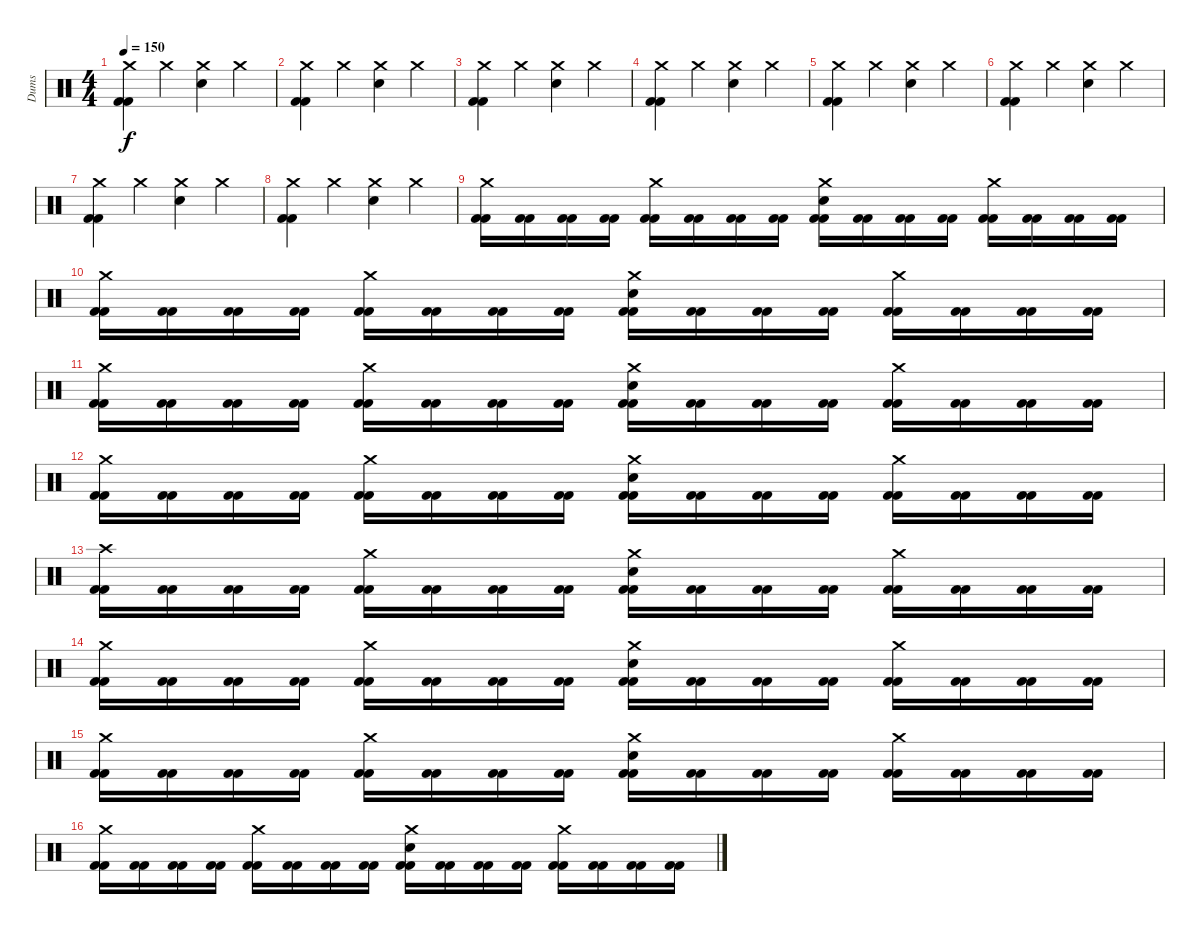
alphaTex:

\track ("Dums" "Dums") {instrument percussion}
\staff {score}
\articulation defaults
\ts (4 4)
\tempo 150
\clef neutral
\ks c
("Crash medium (hit)" "Kick (hit) 2" "Kick (hit) 2").4{dy f} "Crash medium (hit)".4 ("Crash medium (hit)" "Electric Snare (hit)").4 "Crash medium (hit)".4 |
("Crash medium (hit)" "Kick (hit) 2" "Kick (hit) 2").4 "Crash medium (hit)".4 ("Crash medium (hit)" "Electric Snare (hit)").4 "Crash medium (hit)".4 |
("Crash medium (hit)" "Kick (hit) 2" "Kick (hit) 2").4 "Crash medium (hit)".4 ("Crash medium (hit)" "Electric Snare (hit)").4 "Crash medium (hit)".4 |
("Crash medium (hit)" "Kick (hit) 2" "Kick (hit) 2").4 "Crash medium (hit)".4 ("Crash medium (hit)" "Electric Snare (hit)").4 "Crash medium (hit)".4 |
("Crash medium (hit)" "Kick (hit) 2" "Kick (hit) 2").4 "Crash medium (hit)".4 ("Crash medium (hit)" "Electric Snare (hit)").4 "Crash medium (hit)".4 |
("Crash medium (hit)" "Kick (hit) 2" "Kick (hit) 2").4 "Crash medium (hit)".4 ("Crash medium (hit)" "Electric Snare (hit)").4 "Crash medium (hit)".4 |
("Crash medium (hit)" "Kick (hit) 2" "Kick (hit) 2").4 "Crash medium (hit)".4 ("Crash medium (hit)" "Electric Snare (hit)").4 "Crash medium (hit)".4 |
("Crash medium (hit)" "Kick (hit) 2" "Kick (hit) 2").4 "Crash medium (hit)".4 ("Crash medium (hit)" "Electric Snare (hit)").4 "Crash medium (hit)".4 |
("Crash medium (hit)" "Kick (hit) 2" "Kick (hit) 2").16 ("Kick (hit) 2" "Kick (hit) 2").16 ("Kick (hit) 2" "Kick (hit) 2").16 ("Kick (hit) 2" "Kick (hit) 2").16 ("Crash medium (hit)" "Kick (hit) 2" "Kick (hit) 2").16 ("Kick (hit) 2" "Kick (hit) 2").16 ("Kick (hit) 2" "Kick (hit) 2").16 ("Kick (hit) 2" "Kick (hit) 2").16 ("Crash medium (hit)" "Electric Snare (hit)" "Kick (hit) 2" "Kick (hit) 2").16 ("Kick (hit) 2" "Kick (hit) 2").16 ("Kick (hit) 2" "Kick (hit) 2").16 ("Kick (hit) 2" "Kick (hit) 2").16 ("Crash medium (hit)" "Kick (hit) 2" "Kick (hit) 2").16 ("Kick (hit) 2" "Kick (hit) 2").16 ("Kick (hit) 2" "Kick (hit) 2").16 ("Kick (hit) 2" "Kick (hit) 2").16 |
("Crash medium (hit)" "Kick (hit) 2" "Kick (hit) 2").16 ("Kick (hit) 2" "Kick (hit) 2").16 ("Kick (hit) 2" "Kick (hit) 2").16 ("Kick (hit) 2" "Kick (hit) 2").16 ("Crash medium (hit)" "Kick (hit) 2" "Kick (hit) 2").16 ("Kick (hit) 2" "Kick (hit) 2").16 ("Kick (hit) 2" "Kick (hit) 2").16 ("Kick (hit) 2" "Kick (hit) 2").16 ("Crash medium (hit)" "Electric Snare (hit)" "Kick (hit) 2" "Kick (hit) 2").16 ("Kick (hit) 2" "Kick (hit) 2").16 ("Kick (hit) 2" "Kick (hit) 2").16 ("Kick (hit) 2" "Kick (hit) 2").16 ("Crash medium (hit)" "Kick (hit) 2" "Kick (hit) 2").16 ("Kick (hit) 2" "Kick (hit) 2").16 ("Kick (hit) 2" "Kick (hit) 2").16 ("Kick (hit) 2" "Kick (hit) 2").16 |
("Crash medium (hit)" "Kick (hit) 2" "Kick (hit) 2").16 ("Kick (hit) 2" "Kick (hit) 2").16 ("Kick (hit) 2" "Kick (hit) 2").16 ("Kick (hit) 2" "Kick (hit) 2").16 ("Crash medium (hit)" "Kick (hit) 2" "Kick (hit) 2").16 ("Kick (hit) 2" "Kick (hit) 2").16 ("Kick (hit) 2" "Kick (hit) 2").16 ("Kick (hit) 2" "Kick (hit) 2").16 ("Crash medium (hit)" "Electric Snare (hit)" "Kick (hit) 2" "Kick (hit) 2").16 ("Kick (hit) 2" "Kick (hit) 2").16 ("Kick (hit) 2" "Kick (hit) 2").16 ("Kick (hit) 2" "Kick (hit) 2").16 ("Crash medium (hit)" "Kick (hit) 2" "Kick (hit) 2").16 ("Kick (hit) 2" "Kick (hit) 2").16 ("Kick (hit) 2" "Kick (hit) 2").16 ("Kick (hit) 2" "Kick (hit) 2").16 |
("Crash medium (hit)" "Kick (hit) 2" "Kick (hit) 2").16 ("Kick (hit) 2" "Kick (hit) 2").16 ("Kick (hit) 2" "Kick (hit) 2").16 ("Kick (hit) 2" "Kick (hit) 2").16 ("Crash medium (hit)" "Kick (hit) 2" "Kick (hit) 2").16 ("Kick (hit) 2" "Kick (hit) 2").16 ("Kick (hit) 2" "Kick (hit) 2").16 ("Kick (hit) 2" "Kick (hit) 2").16 ("Crash medium (hit)" "Electric Snare (hit)" "Kick (hit) 2" "Kick (hit) 2").16 ("Kick (hit) 2" "Kick (hit) 2").16 ("Kick (hit) 2" "Kick (hit) 2").16 ("Kick (hit) 2" "Kick (hit) 2").16 ("Crash medium (hit)" "Kick (hit) 2" "Kick (hit) 2").16 ("Kick (hit) 2" "Kick (hit) 2").16 ("Kick (hit) 2" "Kick (hit) 2").16 ("Kick (hit) 2" "Kick (hit) 2").16 |
("Crash high (hit)" "Kick (hit) 2" "Kick (hit) 2").16 ("Kick (hit) 2" "Kick (hit) 2").16 ("Kick (hit) 2" "Kick (hit) 2").16 ("Kick (hit) 2" "Kick (hit) 2").16 ("Crash medium (hit)" "Kick (hit) 2" "Kick (hit) 2").16 ("Kick (hit) 2" "Kick (hit) 2").16 ("Kick (hit) 2" "Kick (hit) 2").16 ("Kick (hit) 2" "Kick (hit) 2").16 ("Crash medium (hit)" "Electric Snare (hit)" "Kick (hit) 2" "Kick (hit) 2").16 ("Kick (hit) 2" "Kick (hit) 2").16 ("Kick (hit) 2" "Kick (hit) 2").16 ("Kick (hit) 2" "Kick (hit) 2").16 ("Crash medium (hit)" "Kick (hit) 2" "Kick (hit) 2").16 ("Kick (hit) 2" "Kick (hit) 2").16 ("Kick (hit) 2" "Kick (hit) 2").16 ("Kick (hit) 2" "Kick (hit) 2").16 |
("Crash medium (hit)" "Kick (hit) 2" "Kick (hit) 2").16 ("Kick (hit) 2" "Kick (hit) 2").16 ("Kick (hit) 2" "Kick (hit) 2").16 ("Kick (hit) 2" "Kick (hit) 2").16 ("Crash medium (hit)" "Kick (hit) 2" "Kick (hit) 2").16 ("Kick (hit) 2" "Kick (hit) 2").16 ("Kick (hit) 2" "Kick (hit) 2").16 ("Kick (hit) 2" "Kick (hit) 2").16 ("Crash medium (hit)" "Electric Snare (hit)" "Kick (hit) 2" "Kick (hit) 2").16 ("Kick (hit) 2" "Kick (hit) 2").16 ("Kick (hit) 2" "Kick (hit) 2").16 ("Kick (hit) 2" "Kick (hit) 2").16 ("Crash medium (hit)" "Kick (hit) 2" "Kick (hit) 2").16 ("Kick (hit) 2" "Kick (hit) 2").16 ("Kick (hit) 2" "Kick (hit) 2").16 ("Kick (hit) 2" "Kick (hit) 2").16 |
("Crash medium (hit)" "Kick (hit) 2" "Kick (hit) 2").16 ("Kick (hit) 2" "Kick (hit) 2").16 ("Kick (hit) 2" "Kick (hit) 2").16 ("Kick (hit) 2" "Kick (hit) 2").16 ("Crash medium (hit)" "Kick (hit) 2" "Kick (hit) 2").16 ("Kick (hit) 2" "Kick (hit) 2").16 ("Kick (hit) 2" "Kick (hit) 2").16 ("Kick (hit) 2" "Kick (hit) 2").16 ("Crash medium (hit)" "Electric Snare (hit)" "Kick (hit) 2" "Kick (hit) 2").16 ("Kick (hit) 2" "Kick (hit) 2").16 ("Kick (hit) 2" "Kick (hit) 2").16 ("Kick (hit) 2" "Kick (hit) 2").16 ("Crash medium (hit)" "Kick (hit) 2" "Kick (hit) 2").16 ("Kick (hit) 2" "Kick (hit) 2").16 ("Kick (hit) 2" "Kick (hit) 2").16 ("Kick (hit) 2" "Kick (hit) 2").16 |
("Crash medium (hit)" "Kick (hit) 2" "Kick (hit) 2").16 ("Kick (hit) 2" "Kick (hit) 2").16 ("Kick (hit) 2" "Kick (hit) 2").16 ("Kick (hit) 2" "Kick (hit) 2").16 ("Crash medium (hit)" "Kick (hit) 2" "Kick (hit) 2").16 ("Kick (hit) 2" "Kick (hit) 2").16 ("Kick (hit) 2" "Kick (hit) 2").16 ("Kick (hit) 2" "Kick (hit) 2").16 ("Crash medium (hit)" "Electric Snare (hit)" "Kick (hit) 2" "Kick (hit) 2").16 ("Kick (hit) 2" "Kick (hit) 2").16 ("Kick (hit) 2" "Kick (hit) 2").16 ("Kick (hit) 2" "Kick (hit) 2").16 ("Crash medium (hit)" "Kick (hit) 2" "Kick (hit) 2").16 ("Kick (hit) 2" "Kick (hit) 2").16 ("Kick (hit) 2" "Kick (hit) 2").16 ("Kick (hit) 2" "Kick (hit) 2").16
